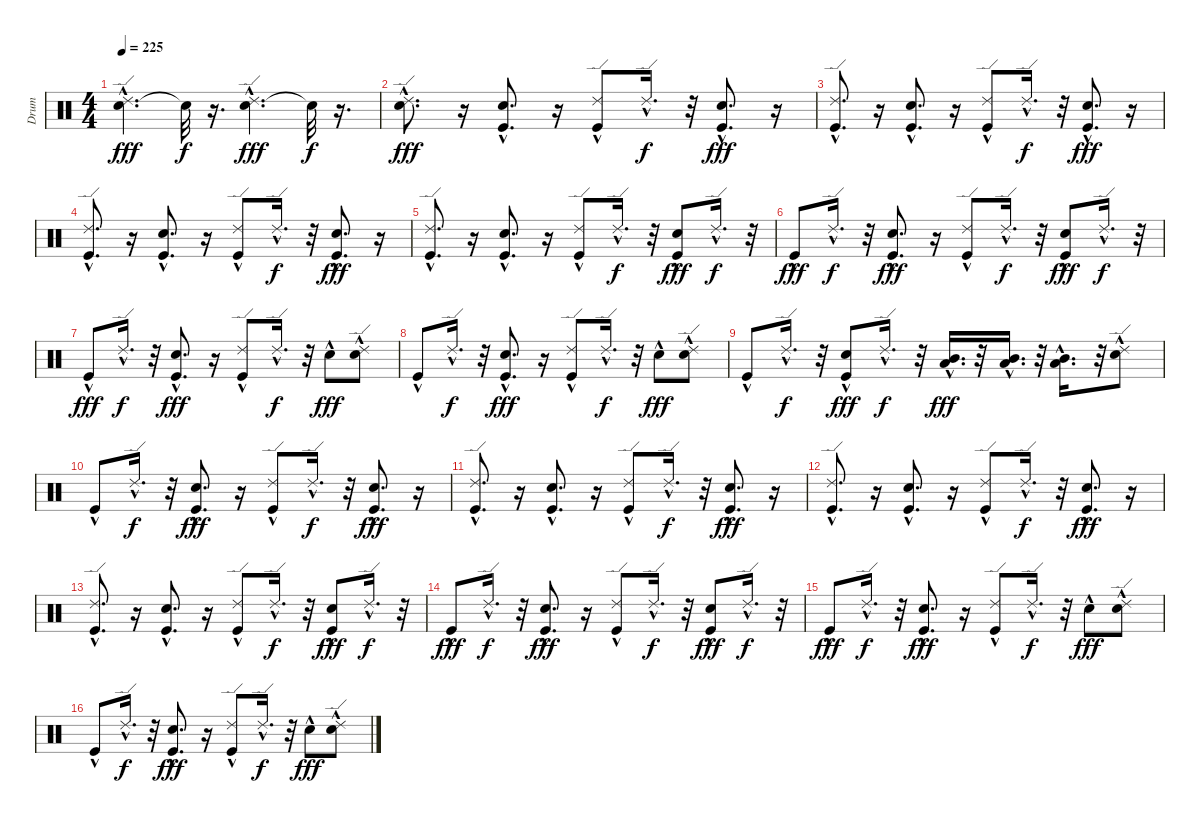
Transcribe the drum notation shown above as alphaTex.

\track ("Drum" "Drum") {instrument percussion}
\staff {score}
\articulation defaults
\ts (4 4)
\tempo 225
\clef neutral
\ks c
("Snare (hit) 2"{hac} "Ride (edge) 2"{hac}).4{d dy fff} "Snare (hit)"{t}.32{dy f} r.16{d} ("Snare (hit) 2"{hac} "Ride (edge) 2"{hac}).4{d dy fff} "Snare (hit)"{t}.32{dy f} r.16{d} |
("Snare (hit) 2"{hac} "Ride (edge) 2"{hac}).8{d dy fff} r.16 ("Kick (hit)"{hac} "Electric Snare (hit)"{hac}).8{d} r.16 ("Kick (hit)"{hac} "Ride (edge) 2"{hac}).8 "Ride (edge) 2"{hac}.16{d dy f} r.32 ("Kick (hit)"{hac} "Electric Snare (hit)"{hac}).8{d dy fff} r.16 |
("Kick (hit)"{hac} "Ride (edge) 2"{hac}).8{d} r.16 ("Kick (hit)"{hac} "Electric Snare (hit)"{hac}).8{d} r.16 ("Kick (hit)"{hac} "Ride (edge) 2"{hac}).8 "Ride (edge) 2"{hac}.16{d dy f} r.32 ("Kick (hit)"{hac} "Electric Snare (hit)"{hac}).8{d dy fff} r.16 |
("Kick (hit)"{hac} "Ride (edge) 2"{hac}).8{d} r.16 ("Kick (hit)"{hac} "Electric Snare (hit)"{hac}).8{d} r.16 ("Kick (hit)"{hac} "Ride (edge) 2"{hac}).8 "Ride (edge) 2"{hac}.16{d dy f} r.32 ("Kick (hit)"{hac} "Electric Snare (hit)"{hac}).8{d dy fff} r.16 |
("Kick (hit)"{hac} "Ride (edge) 2"{hac}).8{d} r.16 ("Kick (hit)"{hac} "Electric Snare (hit)"{hac}).8{d} r.16 ("Kick (hit)"{hac} "Ride (edge) 2"{hac}).8 "Ride (edge) 2"{hac}.16{d dy f} r.32 ("Kick (hit)"{hac} "Electric Snare (hit)"{hac}).8{dy fff} "Ride (edge) 2"{hac}.16{d dy f} r.32 |
"Kick (hit)"{hac}.8{dy fff} "Ride (edge) 2"{hac}.16{d dy f} r.32 ("Kick (hit)"{hac} "Electric Snare (hit)"{hac}).8{d dy fff} r.16 ("Kick (hit)"{hac} "Ride (edge) 2"{hac}).8 "Ride (edge) 2"{hac}.16{d dy f} r.32 ("Kick (hit)"{hac} "Electric Snare (hit)"{hac}).8{dy fff} "Ride (edge) 2"{hac}.16{d dy f} r.32 |
"Kick (hit)"{hac}.8{dy fff} "Ride (edge) 2"{hac}.16{d dy f} r.32 ("Kick (hit)"{hac} "Electric Snare (hit)"{hac}).8{d dy fff} r.16 ("Kick (hit)"{hac} "Ride (edge) 2"{hac}).8 "Ride (edge) 2"{hac}.16{d dy f} r.32 "Electric Snare (hit)"{hac}.8{dy fff} ("Snare (hit) 2" "Ride (edge) 2"{hac}).8 |
"Kick (hit)"{hac}.8 "Ride (edge) 2"{hac}.16{d dy f} r.32 ("Kick (hit)"{hac} "Electric Snare (hit)"{hac}).8{d dy fff} r.16 ("Kick (hit)"{hac} "Ride (edge) 2"{hac}).8 "Ride (edge) 2"{hac}.16{d dy f} r.32 "Electric Snare (hit)"{hac}.8{dy fff} ("Snare (hit) 2" "Ride (edge) 2"{hac}).8 |
"Kick (hit)"{hac}.8 "Ride (edge) 2"{hac}.16{d dy f} r.32 ("Kick (hit)"{hac} "Electric Snare (hit)"{hac}).8{dy fff} "Ride (edge) 2"{hac}.16{d dy f} r.32 ("Low Tom (hit)"{hac} "Mid Tom (hit)"{hac}).16{d dy fff} r.32 ("Low Tom (hit)"{hac} "Mid Tom (hit)"{hac}).16{d} r.32 ("Low Tom (hit)"{hac} "Mid Tom (hit)"{hac}).16{d} r.32 ("Snare (hit) 2" "Ride (edge) 2"{hac}).8 |
"Kick (hit)"{hac}.8 "Ride (edge) 2"{hac}.16{d dy f} r.32 ("Kick (hit)"{hac} "Electric Snare (hit)"{hac}).8{d dy fff} r.16 ("Kick (hit)"{hac} "Ride (edge) 2"{hac}).8 "Ride (edge) 2"{hac}.16{d dy f} r.32 ("Kick (hit)"{hac} "Electric Snare (hit)"{hac}).8{d dy fff} r.16 |
("Kick (hit)"{hac} "Ride (edge) 2"{hac}).8{d} r.16 ("Kick (hit)"{hac} "Electric Snare (hit)"{hac}).8{d} r.16 ("Kick (hit)"{hac} "Ride (edge) 2"{hac}).8 "Ride (edge) 2"{hac}.16{d dy f} r.32 ("Kick (hit)"{hac} "Electric Snare (hit)"{hac}).8{d dy fff} r.16 |
("Kick (hit)"{hac} "Ride (edge) 2"{hac}).8{d} r.16 ("Kick (hit)"{hac} "Electric Snare (hit)"{hac}).8{d} r.16 ("Kick (hit)"{hac} "Ride (edge) 2"{hac}).8 "Ride (edge) 2"{hac}.16{d dy f} r.32 ("Kick (hit)"{hac} "Electric Snare (hit)"{hac}).8{d dy fff} r.16 |
("Kick (hit)"{hac} "Ride (edge) 2"{hac}).8{d} r.16 ("Kick (hit)"{hac} "Electric Snare (hit)"{hac}).8{d} r.16 ("Kick (hit)"{hac} "Ride (edge) 2"{hac}).8 "Ride (edge) 2"{hac}.16{d dy f} r.32 ("Kick (hit)"{hac} "Electric Snare (hit)"{hac}).8{dy fff} "Ride (edge) 2"{hac}.16{d dy f} r.32 |
"Kick (hit)"{hac}.8{dy fff} "Ride (edge) 2"{hac}.16{d dy f} r.32 ("Kick (hit)"{hac} "Electric Snare (hit)"{hac}).8{d dy fff} r.16 ("Kick (hit)"{hac} "Ride (edge) 2"{hac}).8 "Ride (edge) 2"{hac}.16{d dy f} r.32 ("Kick (hit)"{hac} "Electric Snare (hit)"{hac}).8{dy fff} "Ride (edge) 2"{hac}.16{d dy f} r.32 |
"Kick (hit)"{hac}.8{dy fff} "Ride (edge) 2"{hac}.16{d dy f} r.32 ("Kick (hit)"{hac} "Electric Snare (hit)"{hac}).8{d dy fff} r.16 ("Kick (hit)"{hac} "Ride (edge) 2"{hac}).8 "Ride (edge) 2"{hac}.16{d dy f} r.32 "Electric Snare (hit)"{hac}.8{dy fff} ("Snare (hit) 2" "Ride (edge) 2"{hac}).8 |
"Kick (hit)"{hac}.8 "Ride (edge) 2"{hac}.16{d dy f} r.32 ("Kick (hit)"{hac} "Electric Snare (hit)"{hac}).8{d dy fff} r.16 ("Kick (hit)"{hac} "Ride (edge) 2"{hac}).8 "Ride (edge) 2"{hac}.16{d dy f} r.32 "Electric Snare (hit)"{hac}.8{dy fff} ("Snare (hit) 2" "Ride (edge) 2"{hac}).8
